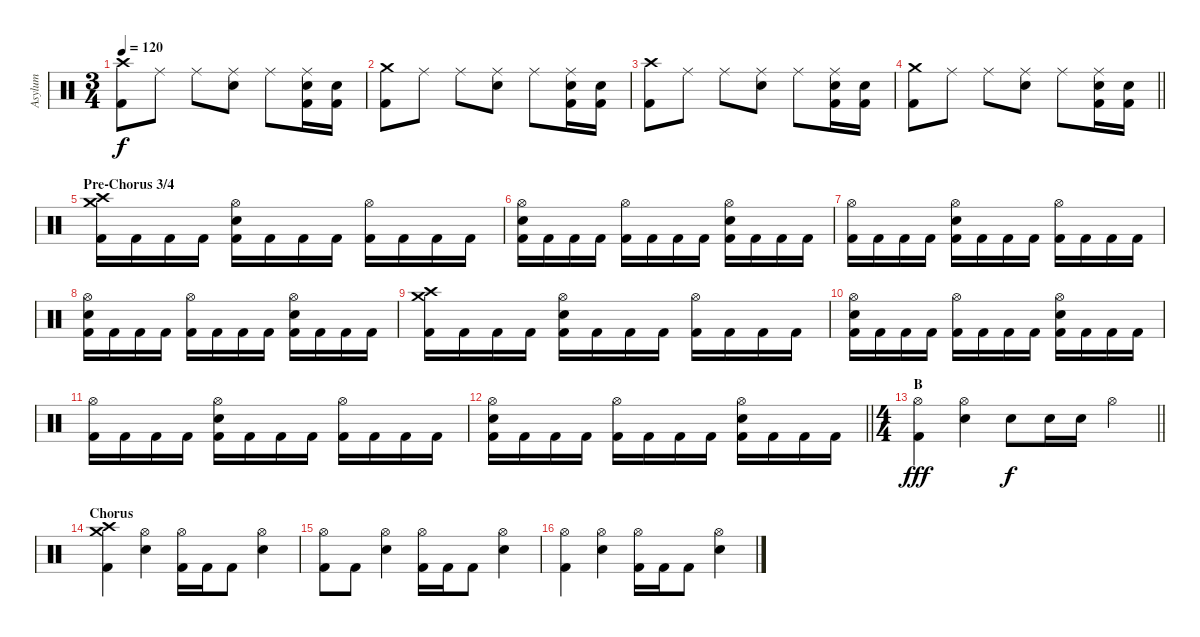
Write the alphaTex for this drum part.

\track ("Asylum" "Asylum") {instrument percussion}
\staff {score}
\articulation defaults
\ts (3 4)
\tempo 120
\clef neutral
\ks c
("Crash high (hit)" "Kick (hit) 2").8{dy f} "Ride (middle)".8 "Ride (middle)".8 ("Ride (middle)" "Electric Snare (hit)").8 "Ride (middle)".8 ("Ride (middle)" "Electric Snare (hit)" "Kick (hit) 2").16 ("Electric Snare (hit)" "Kick (hit) 2").16 |
("Crash medium (hit)" "Kick (hit) 2").8 "Ride (middle)".8 "Ride (middle)".8 ("Ride (middle)" "Electric Snare (hit)").8 "Ride (middle)".8 ("Ride (middle)" "Electric Snare (hit)" "Kick (hit) 2").16 ("Electric Snare (hit)" "Kick (hit) 2").16 |
("Crash high (hit)" "Kick (hit) 2").8 "Ride (middle)".8 "Ride (middle)".8 ("Ride (middle)" "Electric Snare (hit)").8 "Ride (middle)".8 ("Ride (middle)" "Electric Snare (hit)" "Kick (hit) 2").16 ("Electric Snare (hit)" "Kick (hit) 2").16 |
\barLineRight lightlight
("Crash medium (hit)" "Kick (hit) 2").8 "Ride (middle)".8 "Ride (middle)".8 ("Ride (middle)" "Electric Snare (hit)").8 "Ride (middle)".8 ("Ride (middle)" "Electric Snare (hit)" "Kick (hit) 2").16 ("Electric Snare (hit)" "Kick (hit) 2").16 |
\section ("" "Pre-Chorus 3/4")
("Crash medium (hit)" "Crash high (hit)" "Kick (hit) 2").16 "Kick (hit) 2".16 "Kick (hit) 2".16 "Kick (hit) 2".16 ("Hi-Hat (open)" "Electric Snare (hit)" "Kick (hit) 2").16 "Kick (hit) 2".16 "Kick (hit) 2".16 "Kick (hit) 2".16 ("Hi-Hat (open)" "Kick (hit) 2").16 "Kick (hit) 2".16 "Kick (hit) 2".16 "Kick (hit) 2".16 |
("Hi-Hat (open)" "Electric Snare (hit)" "Kick (hit) 2").16 "Kick (hit) 2".16 "Kick (hit) 2".16 "Kick (hit) 2".16 ("Hi-Hat (open)" "Kick (hit) 2").16 "Kick (hit) 2".16 "Kick (hit) 2".16 "Kick (hit) 2".16 ("Hi-Hat (open)" "Electric Snare (hit)" "Kick (hit) 2").16 "Kick (hit) 2".16 "Kick (hit) 2".16 "Kick (hit) 2".16 |
("Hi-Hat (open)" "Kick (hit) 2").16 "Kick (hit) 2".16 "Kick (hit) 2".16 "Kick (hit) 2".16 ("Hi-Hat (open)" "Electric Snare (hit)" "Kick (hit) 2").16 "Kick (hit) 2".16 "Kick (hit) 2".16 "Kick (hit) 2".16 ("Hi-Hat (open)" "Kick (hit) 2").16 "Kick (hit) 2".16 "Kick (hit) 2".16 "Kick (hit) 2".16 |
("Hi-Hat (open)" "Electric Snare (hit)" "Kick (hit) 2").16 "Kick (hit) 2".16 "Kick (hit) 2".16 "Kick (hit) 2".16 ("Hi-Hat (open)" "Kick (hit) 2").16 "Kick (hit) 2".16 "Kick (hit) 2".16 "Kick (hit) 2".16 ("Hi-Hat (open)" "Electric Snare (hit)" "Kick (hit) 2").16 "Kick (hit) 2".16 "Kick (hit) 2".16 "Kick (hit) 2".16 |
("Crash medium (hit)" "Crash high (hit)" "Kick (hit) 2").16 "Kick (hit) 2".16 "Kick (hit) 2".16 "Kick (hit) 2".16 ("Hi-Hat (open)" "Electric Snare (hit)" "Kick (hit) 2").16 "Kick (hit) 2".16 "Kick (hit) 2".16 "Kick (hit) 2".16 ("Hi-Hat (open)" "Kick (hit) 2").16 "Kick (hit) 2".16 "Kick (hit) 2".16 "Kick (hit) 2".16 |
("Hi-Hat (open)" "Electric Snare (hit)" "Kick (hit) 2").16 "Kick (hit) 2".16 "Kick (hit) 2".16 "Kick (hit) 2".16 ("Hi-Hat (open)" "Kick (hit) 2").16 "Kick (hit) 2".16 "Kick (hit) 2".16 "Kick (hit) 2".16 ("Hi-Hat (open)" "Electric Snare (hit)" "Kick (hit) 2").16 "Kick (hit) 2".16 "Kick (hit) 2".16 "Kick (hit) 2".16 |
("Hi-Hat (open)" "Kick (hit) 2").16 "Kick (hit) 2".16 "Kick (hit) 2".16 "Kick (hit) 2".16 ("Hi-Hat (open)" "Electric Snare (hit)" "Kick (hit) 2").16 "Kick (hit) 2".16 "Kick (hit) 2".16 "Kick (hit) 2".16 ("Hi-Hat (open)" "Kick (hit) 2").16 "Kick (hit) 2".16 "Kick (hit) 2".16 "Kick (hit) 2".16 |
\barLineRight lightlight
("Hi-Hat (open)" "Electric Snare (hit)" "Kick (hit) 2").16 "Kick (hit) 2".16 "Kick (hit) 2".16 "Kick (hit) 2".16 ("Hi-Hat (open)" "Kick (hit) 2").16 "Kick (hit) 2".16 "Kick (hit) 2".16 "Kick (hit) 2".16 ("Hi-Hat (open)" "Electric Snare (hit)" "Kick (hit) 2").16 "Kick (hit) 2".16 "Kick (hit) 2".16 "Kick (hit) 2".16 |
\ts (4 4)
\section ("" "B")
\barLineRight lightlight
("Hi-Hat (open)" "Kick (hit) 2").4{dy fff} ("Hi-Hat (open)" "Electric Snare (hit)").4 "Electric Snare (hit)".8{dy f} "Electric Snare (hit)".16 "Electric Snare (hit)".16 "Hi-Hat (open)".4 |
\section ("" "Chorus")
("Crash medium (hit)" "Crash high (hit)" "Kick (hit) 2").4 ("Hi-Hat (open)" "Electric Snare (hit)").4 ("Hi-Hat (open)" "Kick (hit) 2").16 "Kick (hit) 2".16 "Kick (hit) 2".8 ("Hi-Hat (open)" "Electric Snare (hit)").4 |
("Hi-Hat (open)" "Kick (hit) 2").8 "Kick (hit) 2".8 ("Hi-Hat (open)" "Electric Snare (hit)").4 ("Hi-Hat (open)" "Kick (hit) 2").16 "Kick (hit) 2".16 "Kick (hit) 2".8 ("Hi-Hat (open)" "Electric Snare (hit)").4 |
("Hi-Hat (open)" "Kick (hit) 2").4 ("Hi-Hat (open)" "Electric Snare (hit)").4 ("Hi-Hat (open)" "Kick (hit) 2").16 "Kick (hit) 2".16 "Kick (hit) 2".8 ("Hi-Hat (open)" "Electric Snare (hit)").4
